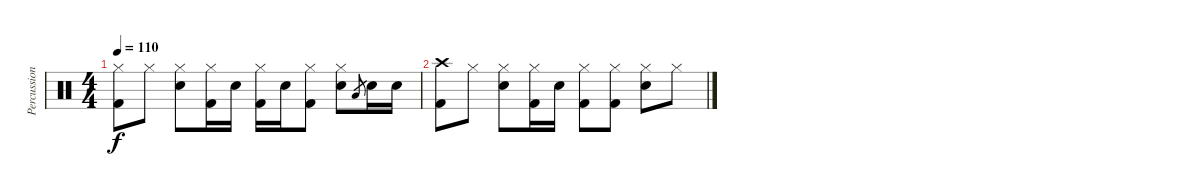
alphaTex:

\track ("Percussions" "Percussion") {instrument percussion}
\staff {score}
\articulation defaults
\ts (4 4)
\tempo 110
\clef neutral
\ks c
("Hi-Hat (closed)" "Kick (hit) 2").8{dy f} "Hi-Hat (closed)".8 ("Hi-Hat (closed)" "Electric Snare (hit)").8 ("Hi-Hat (closed)" "Kick (hit) 2").16 "Electric Snare (hit)".16 ("Hi-Hat (closed)" "Kick (hit) 2").16 "Electric Snare (hit)".16 ("Hi-Hat (closed)" "Kick (hit) 2").8 ("Hi-Hat (closed)" "Electric Snare (hit)").8 "Low Floor Tom (hit)".8{gr} "Electric Snare (hit)".16 "Electric Snare (hit)".16 |
("Crash high (hit)" "Kick (hit) 2").8{volume 0} "Hi-Hat (closed)".8 ("Hi-Hat (closed)" "Electric Snare (hit)").8 ("Hi-Hat (closed)" "Kick (hit) 2").16 "Electric Snare (hit)".16 ("Hi-Hat (closed)" "Kick (hit) 2").8 ("Hi-Hat (closed)" "Kick (hit) 2").8 ("Hi-Hat (closed)" "Electric Snare (hit)").8 "Hi-Hat (closed)".8
